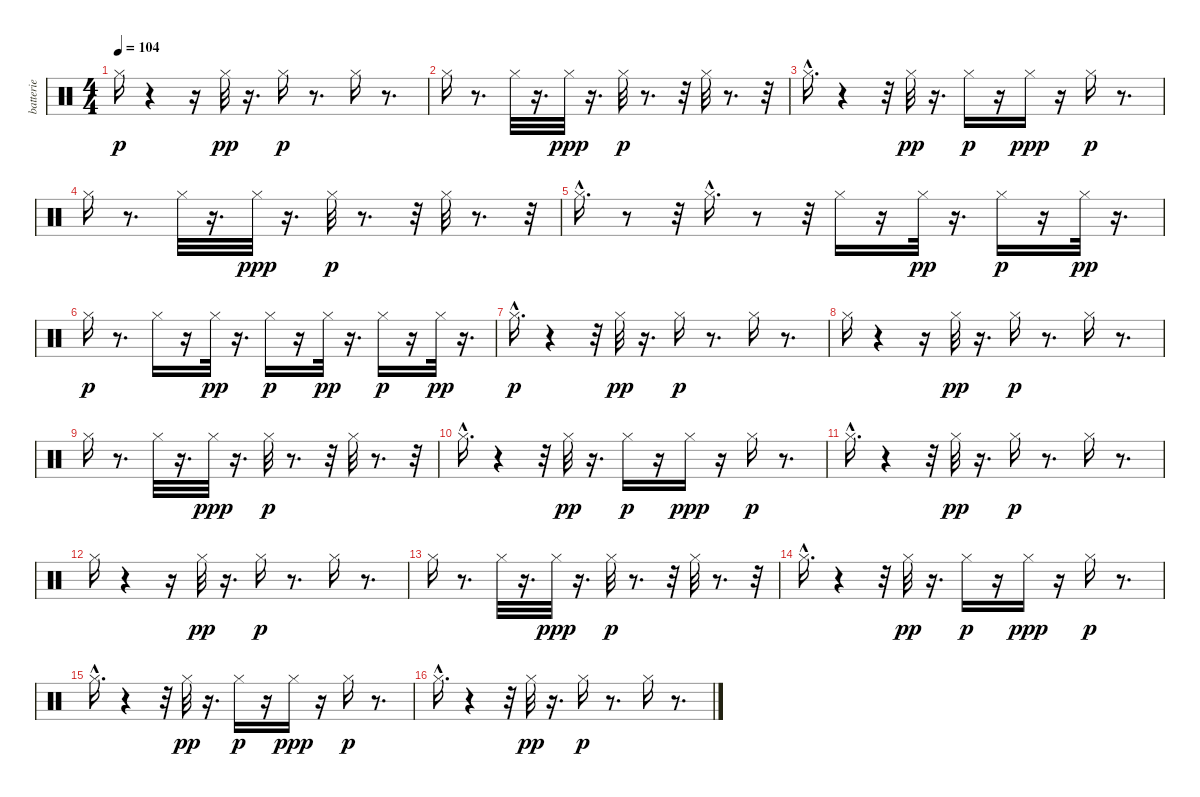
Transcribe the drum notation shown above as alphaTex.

\track ("batterie" "batterie") {instrument percussion}
\staff {score}
\articulation defaults
\ts (4 4)
\tempo 104
\clef neutral
\ks c "Hi-Hat (closed)".16{dy p}
r.4 r.16 "Hi-Hat (closed)".32{dy pp} r.16{d} "Hi-Hat (closed)".16{dy p} r.8{d} "Hi-Hat (closed)".16 r.8{d} |
"Hi-Hat (closed)".16 r.8{d} "Hi-Hat (closed)".32 r.16{d} "Hi-Hat (closed)".32{dy ppp} r.16{d} "Hi-Hat (closed)".32{dy p} r.8{d} r.32 "Hi-Hat (closed)".32 r.8{d} r.32 |
"Hi-Hat (closed)"{hac}.16{d} r.4 r.32 "Hi-Hat (closed)".32{dy pp} r.16{d} "Hi-Hat (closed)".16{dy p} r.16 "Hi-Hat (closed)".16{dy ppp} r.16 "Hi-Hat (closed)".16{dy p} r.8{d} |
"Hi-Hat (closed)".16 r.8{d} "Hi-Hat (closed)".32 r.16{d} "Hi-Hat (closed)".32{dy ppp} r.16{d} "Hi-Hat (closed)".32{dy p} r.8{d} r.32 "Hi-Hat (closed)".32 r.8{d} r.32 |
"Hi-Hat (closed)"{hac}.16{d} r.8 r.32 "Hi-Hat (closed)"{hac}.16{d} r.8 r.32 "Hi-Hat (closed)".16 r.16 "Hi-Hat (closed)".32{dy pp} r.16{d} "Hi-Hat (closed)".16{dy p} r.16 "Hi-Hat (closed)".32{dy pp} r.16{d} |
"Hi-Hat (closed)".16{dy p} r.8{d} "Hi-Hat (closed)".16 r.16 "Hi-Hat (closed)".32{dy pp} r.16{d} "Hi-Hat (closed)".16{dy p} r.16 "Hi-Hat (closed)".32{dy pp} r.16{d} "Hi-Hat (closed)".16{dy p} r.16 "Hi-Hat (closed)".32{dy pp} r.16{d} |
"Hi-Hat (closed)"{hac}.16{d dy p} r.4 r.32 "Hi-Hat (closed)".32{dy pp} r.16{d} "Hi-Hat (closed)".16{dy p} r.8{d} "Hi-Hat (closed)".16 r.8{d} |
"Hi-Hat (closed)".16 r.4 r.16 "Hi-Hat (closed)".32{dy pp} r.16{d} "Hi-Hat (closed)".16{dy p} r.8{d} "Hi-Hat (closed)".16 r.8{d} |
"Hi-Hat (closed)".16 r.8{d} "Hi-Hat (closed)".32 r.16{d} "Hi-Hat (closed)".32{dy ppp} r.16{d} "Hi-Hat (closed)".32{dy p} r.8{d} r.32 "Hi-Hat (closed)".32 r.8{d} r.32 |
"Hi-Hat (closed)"{hac}.16{d} r.4 r.32 "Hi-Hat (closed)".32{dy pp} r.16{d} "Hi-Hat (closed)".16{dy p} r.16 "Hi-Hat (closed)".16{dy ppp} r.16 "Hi-Hat (closed)".16{dy p} r.8{d} |
"Hi-Hat (closed)"{hac}.16{d} r.4 r.32 "Hi-Hat (closed)".32{dy pp} r.16{d} "Hi-Hat (closed)".16{dy p} r.8{d} "Hi-Hat (closed)".16 r.8{d} |
"Hi-Hat (closed)".16 r.4 r.16 "Hi-Hat (closed)".32{dy pp} r.16{d} "Hi-Hat (closed)".16{dy p} r.8{d} "Hi-Hat (closed)".16 r.8{d} |
"Hi-Hat (closed)".16 r.8{d} "Hi-Hat (closed)".32 r.16{d} "Hi-Hat (closed)".32{dy ppp} r.16{d} "Hi-Hat (closed)".32{dy p} r.8{d} r.32 "Hi-Hat (closed)".32 r.8{d} r.32 |
"Hi-Hat (closed)"{hac}.16{d} r.4 r.32 "Hi-Hat (closed)".32{dy pp} r.16{d} "Hi-Hat (closed)".16{dy p} r.16 "Hi-Hat (closed)".16{dy ppp} r.16 "Hi-Hat (closed)".16{dy p} r.8{d} |
"Hi-Hat (closed)"{hac}.16{d} r.4 r.32 "Hi-Hat (closed)".32{dy pp} r.16{d} "Hi-Hat (closed)".16{dy p} r.16 "Hi-Hat (closed)".16{dy ppp} r.16 "Hi-Hat (closed)".16{dy p} r.8{d} |
"Hi-Hat (closed)"{hac}.16{d} r.4 r.32 "Hi-Hat (closed)".32{dy pp} r.16{d} "Hi-Hat (closed)".16{dy p} r.8{d} "Hi-Hat (closed)".16 r.8{d}
